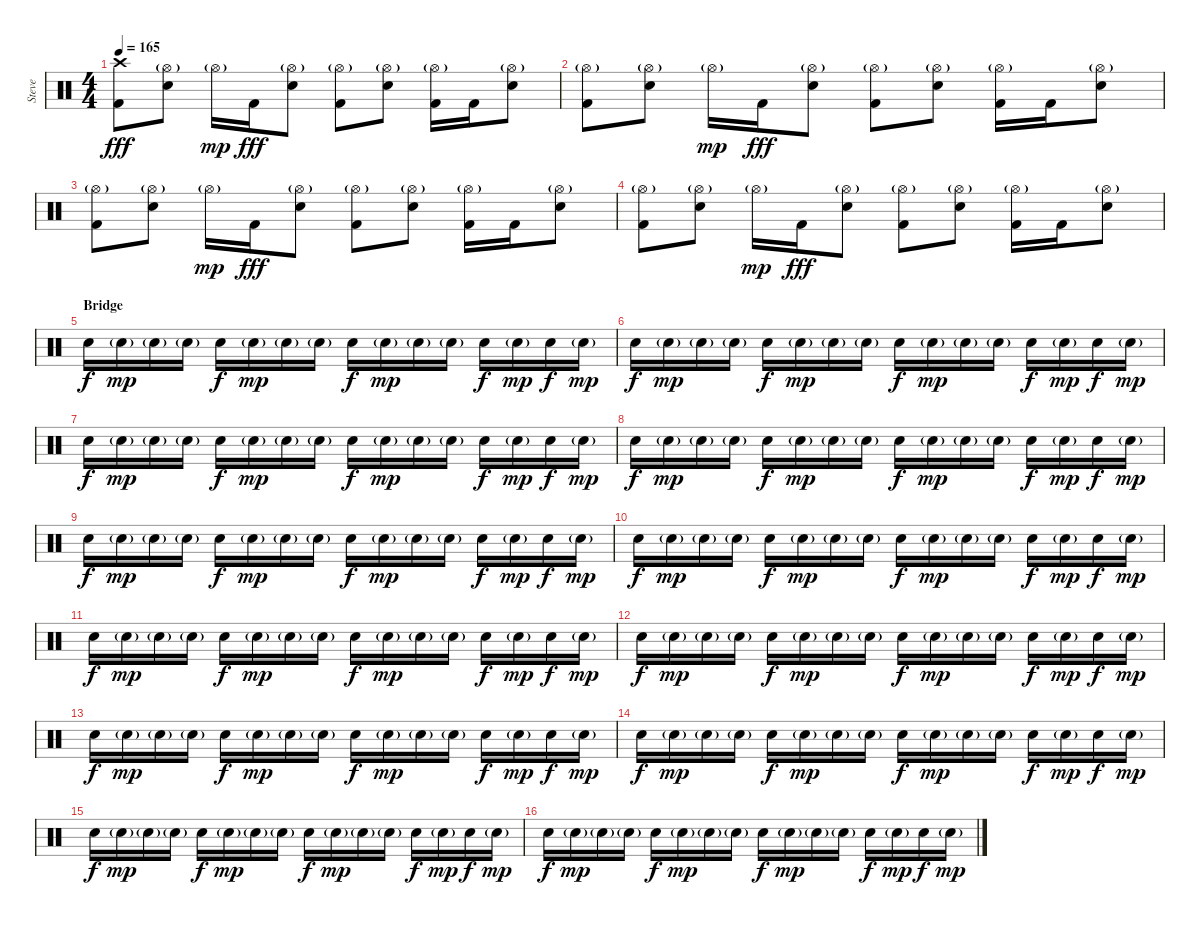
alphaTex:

\track ("Steve" "Steve") {instrument percussion}
\staff {score}
\articulation defaults
\ts (4 4)
\tempo 165
\clef neutral
\ks c
("Crash high (hit)" "Kick (hit) 2").8{dy fff} ("Hi-Hat (open)"{g} "Electric Snare (hit)").8 "Hi-Hat (open)"{g}.16{dy mp} "Kick (hit) 2".16{dy fff} ("Hi-Hat (open)"{g} "Electric Snare (hit)").8 ("Hi-Hat (open)"{g} "Kick (hit) 2").8 ("Hi-Hat (open)"{g} "Electric Snare (hit)").8 ("Hi-Hat (open)"{g} "Kick (hit) 2").16 "Kick (hit) 2".16 ("Hi-Hat (open)"{g} "Electric Snare (hit)").8 |
("Hi-Hat (open)"{g} "Kick (hit) 2").8 ("Hi-Hat (open)"{g} "Electric Snare (hit)").8 "Hi-Hat (open)"{g}.16{dy mp} "Kick (hit) 2".16{dy fff} ("Hi-Hat (open)"{g} "Electric Snare (hit)").8 ("Hi-Hat (open)"{g} "Kick (hit) 2").8 ("Hi-Hat (open)"{g} "Electric Snare (hit)").8 ("Hi-Hat (open)"{g} "Kick (hit) 2").16 "Kick (hit) 2".16 ("Hi-Hat (open)"{g} "Electric Snare (hit)").8 |
("Hi-Hat (open)"{g} "Kick (hit) 2").8 ("Hi-Hat (open)"{g} "Electric Snare (hit)").8 "Hi-Hat (open)"{g}.16{dy mp} "Kick (hit) 2".16{dy fff} ("Hi-Hat (open)"{g} "Electric Snare (hit)").8 ("Hi-Hat (open)"{g} "Kick (hit) 2").8 ("Hi-Hat (open)"{g} "Electric Snare (hit)").8 ("Hi-Hat (open)"{g} "Kick (hit) 2").16 "Kick (hit) 2".16 ("Hi-Hat (open)"{g} "Electric Snare (hit)").8 |
("Hi-Hat (open)"{g} "Kick (hit) 2").8 ("Hi-Hat (open)"{g} "Electric Snare (hit)").8 "Hi-Hat (open)"{g}.16{dy mp} "Kick (hit) 2".16{dy fff} ("Hi-Hat (open)"{g} "Electric Snare (hit)").8 ("Hi-Hat (open)"{g} "Kick (hit) 2").8 ("Hi-Hat (open)"{g} "Electric Snare (hit)").8 ("Hi-Hat (open)"{g} "Kick (hit) 2").16 "Kick (hit) 2".16 ("Hi-Hat (open)"{g} "Electric Snare (hit)").8 |
\section ("" "Bridge")
"Electric Snare (hit)".16{dy f} "Electric Snare (hit)"{g}.16{dy mp} "Electric Snare (hit)"{g}.16 "Electric Snare (hit)"{g}.16 "Electric Snare (hit)".16{dy f} "Electric Snare (hit)"{g}.16{dy mp} "Electric Snare (hit)"{g}.16 "Electric Snare (hit)"{g}.16 "Electric Snare (hit)".16{dy f} "Electric Snare (hit)"{g}.16{dy mp} "Electric Snare (hit)"{g}.16 "Electric Snare (hit)"{g}.16 "Electric Snare (hit)".16{dy f} "Electric Snare (hit)"{g}.16{dy mp} "Electric Snare (hit)".16{dy f} "Electric Snare (hit)"{g}.16{dy mp} |
"Electric Snare (hit)".16{dy f} "Electric Snare (hit)"{g}.16{dy mp} "Electric Snare (hit)"{g}.16 "Electric Snare (hit)"{g}.16 "Electric Snare (hit)".16{dy f} "Electric Snare (hit)"{g}.16{dy mp} "Electric Snare (hit)"{g}.16 "Electric Snare (hit)"{g}.16 "Electric Snare (hit)".16{dy f} "Electric Snare (hit)"{g}.16{dy mp} "Electric Snare (hit)"{g}.16 "Electric Snare (hit)"{g}.16 "Electric Snare (hit)".16{dy f} "Electric Snare (hit)"{g}.16{dy mp} "Electric Snare (hit)".16{dy f} "Electric Snare (hit)"{g}.16{dy mp} |
"Electric Snare (hit)".16{dy f} "Electric Snare (hit)"{g}.16{dy mp} "Electric Snare (hit)"{g}.16 "Electric Snare (hit)"{g}.16 "Electric Snare (hit)".16{dy f} "Electric Snare (hit)"{g}.16{dy mp} "Electric Snare (hit)"{g}.16 "Electric Snare (hit)"{g}.16 "Electric Snare (hit)".16{dy f} "Electric Snare (hit)"{g}.16{dy mp} "Electric Snare (hit)"{g}.16 "Electric Snare (hit)"{g}.16 "Electric Snare (hit)".16{dy f} "Electric Snare (hit)"{g}.16{dy mp} "Electric Snare (hit)".16{dy f} "Electric Snare (hit)"{g}.16{dy mp} |
"Electric Snare (hit)".16{dy f} "Electric Snare (hit)"{g}.16{dy mp} "Electric Snare (hit)"{g}.16 "Electric Snare (hit)"{g}.16 "Electric Snare (hit)".16{dy f} "Electric Snare (hit)"{g}.16{dy mp} "Electric Snare (hit)"{g}.16 "Electric Snare (hit)"{g}.16 "Electric Snare (hit)".16{dy f} "Electric Snare (hit)"{g}.16{dy mp} "Electric Snare (hit)"{g}.16 "Electric Snare (hit)"{g}.16 "Electric Snare (hit)".16{dy f} "Electric Snare (hit)"{g}.16{dy mp} "Electric Snare (hit)".16{dy f} "Electric Snare (hit)"{g}.16{dy mp} |
"Electric Snare (hit)".16{dy f} "Electric Snare (hit)"{g}.16{dy mp} "Electric Snare (hit)"{g}.16 "Electric Snare (hit)"{g}.16 "Electric Snare (hit)".16{dy f} "Electric Snare (hit)"{g}.16{dy mp} "Electric Snare (hit)"{g}.16 "Electric Snare (hit)"{g}.16 "Electric Snare (hit)".16{dy f} "Electric Snare (hit)"{g}.16{dy mp} "Electric Snare (hit)"{g}.16 "Electric Snare (hit)"{g}.16 "Electric Snare (hit)".16{dy f} "Electric Snare (hit)"{g}.16{dy mp} "Electric Snare (hit)".16{dy f} "Electric Snare (hit)"{g}.16{dy mp} |
"Electric Snare (hit)".16{dy f} "Electric Snare (hit)"{g}.16{dy mp} "Electric Snare (hit)"{g}.16 "Electric Snare (hit)"{g}.16 "Electric Snare (hit)".16{dy f} "Electric Snare (hit)"{g}.16{dy mp} "Electric Snare (hit)"{g}.16 "Electric Snare (hit)"{g}.16 "Electric Snare (hit)".16{dy f} "Electric Snare (hit)"{g}.16{dy mp} "Electric Snare (hit)"{g}.16 "Electric Snare (hit)"{g}.16 "Electric Snare (hit)".16{dy f} "Electric Snare (hit)"{g}.16{dy mp} "Electric Snare (hit)".16{dy f} "Electric Snare (hit)"{g}.16{dy mp} |
"Electric Snare (hit)".16{dy f} "Electric Snare (hit)"{g}.16{dy mp} "Electric Snare (hit)"{g}.16 "Electric Snare (hit)"{g}.16 "Electric Snare (hit)".16{dy f} "Electric Snare (hit)"{g}.16{dy mp} "Electric Snare (hit)"{g}.16 "Electric Snare (hit)"{g}.16 "Electric Snare (hit)".16{dy f} "Electric Snare (hit)"{g}.16{dy mp} "Electric Snare (hit)"{g}.16 "Electric Snare (hit)"{g}.16 "Electric Snare (hit)".16{dy f} "Electric Snare (hit)"{g}.16{dy mp} "Electric Snare (hit)".16{dy f} "Electric Snare (hit)"{g}.16{dy mp} |
"Electric Snare (hit)".16{dy f} "Electric Snare (hit)"{g}.16{dy mp} "Electric Snare (hit)"{g}.16 "Electric Snare (hit)"{g}.16 "Electric Snare (hit)".16{dy f} "Electric Snare (hit)"{g}.16{dy mp} "Electric Snare (hit)"{g}.16 "Electric Snare (hit)"{g}.16 "Electric Snare (hit)".16{dy f} "Electric Snare (hit)"{g}.16{dy mp} "Electric Snare (hit)"{g}.16 "Electric Snare (hit)"{g}.16 "Electric Snare (hit)".16{dy f} "Electric Snare (hit)"{g}.16{dy mp} "Electric Snare (hit)".16{dy f} "Electric Snare (hit)"{g}.16{dy mp} |
"Electric Snare (hit)".16{dy f} "Electric Snare (hit)"{g}.16{dy mp} "Electric Snare (hit)"{g}.16 "Electric Snare (hit)"{g}.16 "Electric Snare (hit)".16{dy f} "Electric Snare (hit)"{g}.16{dy mp} "Electric Snare (hit)"{g}.16 "Electric Snare (hit)"{g}.16 "Electric Snare (hit)".16{dy f} "Electric Snare (hit)"{g}.16{dy mp} "Electric Snare (hit)"{g}.16 "Electric Snare (hit)"{g}.16 "Electric Snare (hit)".16{dy f} "Electric Snare (hit)"{g}.16{dy mp} "Electric Snare (hit)".16{dy f} "Electric Snare (hit)"{g}.16{dy mp} |
"Electric Snare (hit)".16{dy f} "Electric Snare (hit)"{g}.16{dy mp} "Electric Snare (hit)"{g}.16 "Electric Snare (hit)"{g}.16 "Electric Snare (hit)".16{dy f} "Electric Snare (hit)"{g}.16{dy mp} "Electric Snare (hit)"{g}.16 "Electric Snare (hit)"{g}.16 "Electric Snare (hit)".16{dy f} "Electric Snare (hit)"{g}.16{dy mp} "Electric Snare (hit)"{g}.16 "Electric Snare (hit)"{g}.16 "Electric Snare (hit)".16{dy f} "Electric Snare (hit)"{g}.16{dy mp} "Electric Snare (hit)".16{dy f} "Electric Snare (hit)"{g}.16{dy mp} |
"Electric Snare (hit)".16{dy f} "Electric Snare (hit)"{g}.16{dy mp} "Electric Snare (hit)"{g}.16 "Electric Snare (hit)"{g}.16 "Electric Snare (hit)".16{dy f} "Electric Snare (hit)"{g}.16{dy mp} "Electric Snare (hit)"{g}.16 "Electric Snare (hit)"{g}.16 "Electric Snare (hit)".16{dy f} "Electric Snare (hit)"{g}.16{dy mp} "Electric Snare (hit)"{g}.16 "Electric Snare (hit)"{g}.16 "Electric Snare (hit)".16{dy f} "Electric Snare (hit)"{g}.16{dy mp} "Electric Snare (hit)".16{dy f} "Electric Snare (hit)"{g}.16{dy mp} |
"Electric Snare (hit)".16{dy f} "Electric Snare (hit)"{g}.16{dy mp} "Electric Snare (hit)"{g}.16 "Electric Snare (hit)"{g}.16 "Electric Snare (hit)".16{dy f} "Electric Snare (hit)"{g}.16{dy mp} "Electric Snare (hit)"{g}.16 "Electric Snare (hit)"{g}.16 "Electric Snare (hit)".16{dy f} "Electric Snare (hit)"{g}.16{dy mp} "Electric Snare (hit)"{g}.16 "Electric Snare (hit)"{g}.16 "Electric Snare (hit)".16{dy f} "Electric Snare (hit)"{g}.16{dy mp} "Electric Snare (hit)".16{dy f} "Electric Snare (hit)"{g}.16{dy mp}
